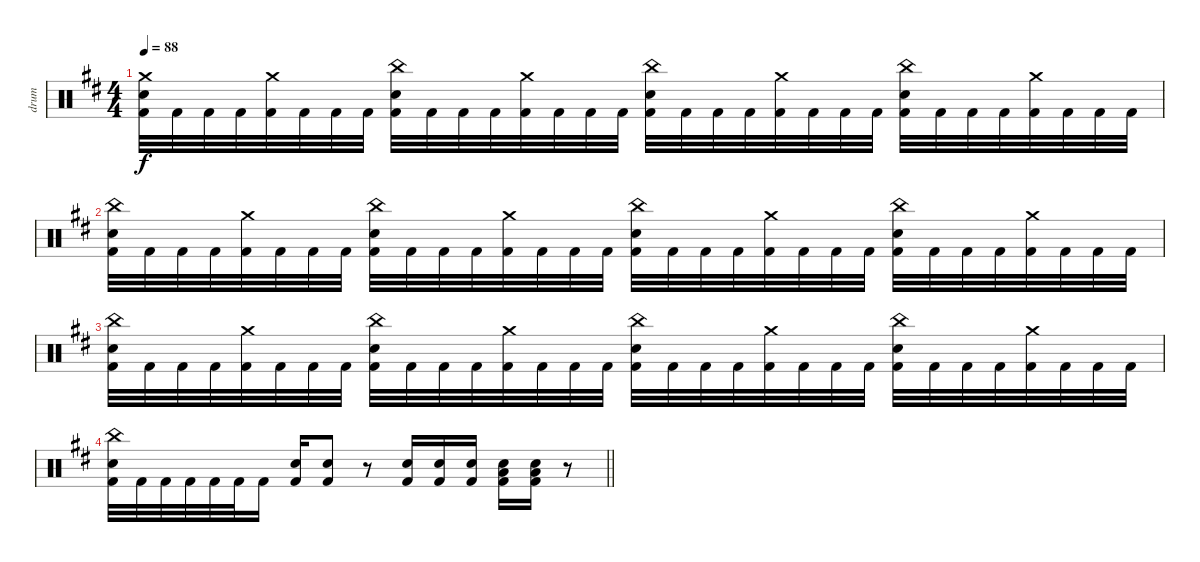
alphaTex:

\track ("drum" "drum") {instrument percussion}
\staff {score}
\articulation defaults
\ts (4 4)
\tempo 88
\clef neutral
\ks bminor
("Crash medium (hit)" "Electric Snare (hit)" "Kick (hit) 2").32{dy f} "Kick (hit) 2".32 "Kick (hit) 2".32 "Kick (hit) 2".32 ("Crash medium (hit)" "Kick (hit) 2").32 "Kick (hit) 2".32 "Kick (hit) 2".32 "Kick (hit) 2".32 ("China (hit)" "Electric Snare (hit)" "Kick (hit) 2").32 "Kick (hit) 2".32 "Kick (hit) 2".32 "Kick (hit) 2".32 ("Crash medium (hit)" "Kick (hit) 2").32 "Kick (hit) 2".32 "Kick (hit) 2".32 "Kick (hit) 2".32 ("China (hit)" "Electric Snare (hit)" "Kick (hit) 2").32 "Kick (hit) 2".32 "Kick (hit) 2".32 "Kick (hit) 2".32 ("Crash medium (hit)" "Kick (hit) 2").32 "Kick (hit) 2".32 "Kick (hit) 2".32 "Kick (hit) 2".32 ("China (hit)" "Electric Snare (hit)" "Kick (hit) 2").32 "Kick (hit) 2".32 "Kick (hit) 2".32 "Kick (hit) 2".32 ("Crash medium (hit)" "Kick (hit) 2").32 "Kick (hit) 2".32 "Kick (hit) 2".32 "Kick (hit) 2".32 |
("China (hit)" "Electric Snare (hit)" "Kick (hit) 2").32 "Kick (hit) 2".32 "Kick (hit) 2".32 "Kick (hit) 2".32 ("Crash medium (hit)" "Kick (hit) 2").32 "Kick (hit) 2".32 "Kick (hit) 2".32 "Kick (hit) 2".32 ("China (hit)" "Electric Snare (hit)" "Kick (hit) 2").32 "Kick (hit) 2".32 "Kick (hit) 2".32 "Kick (hit) 2".32 ("Crash medium (hit)" "Kick (hit) 2").32 "Kick (hit) 2".32 "Kick (hit) 2".32 "Kick (hit) 2".32 ("China (hit)" "Electric Snare (hit)" "Kick (hit) 2").32 "Kick (hit) 2".32 "Kick (hit) 2".32 "Kick (hit) 2".32 ("Crash medium (hit)" "Kick (hit) 2").32 "Kick (hit) 2".32 "Kick (hit) 2".32 "Kick (hit) 2".32 ("China (hit)" "Electric Snare (hit)" "Kick (hit) 2").32 "Kick (hit) 2".32 "Kick (hit) 2".32 "Kick (hit) 2".32 ("Crash medium (hit)" "Kick (hit) 2").32 "Kick (hit) 2".32 "Kick (hit) 2".32 "Kick (hit) 2".32 |
("China (hit)" "Electric Snare (hit)" "Kick (hit) 2").32 "Kick (hit) 2".32 "Kick (hit) 2".32 "Kick (hit) 2".32 ("Crash medium (hit)" "Kick (hit) 2").32 "Kick (hit) 2".32 "Kick (hit) 2".32 "Kick (hit) 2".32 ("China (hit)" "Electric Snare (hit)" "Kick (hit) 2").32 "Kick (hit) 2".32 "Kick (hit) 2".32 "Kick (hit) 2".32 ("Crash medium (hit)" "Kick (hit) 2").32 "Kick (hit) 2".32 "Kick (hit) 2".32 "Kick (hit) 2".32 ("China (hit)" "Electric Snare (hit)" "Kick (hit) 2").32 "Kick (hit) 2".32 "Kick (hit) 2".32 "Kick (hit) 2".32 ("Crash medium (hit)" "Kick (hit) 2").32 "Kick (hit) 2".32 "Kick (hit) 2".32 "Kick (hit) 2".32 ("China (hit)" "Electric Snare (hit)" "Kick (hit) 2").32 "Kick (hit) 2".32 "Kick (hit) 2".32 "Kick (hit) 2".32 ("Crash medium (hit)" "Kick (hit) 2").32 "Kick (hit) 2".32 "Kick (hit) 2".32 "Kick (hit) 2".32 |
\barLineRight lightlight
("China (hit)" "Electric Snare (hit)" "Kick (hit) 2").32 "Kick (hit) 2".32 "Kick (hit) 2".32 "Kick (hit) 2".32 "Kick (hit) 2".32 "Kick (hit) 2".32 "Kick (hit) 2".16 ("Electric Snare (hit)" "Kick (hit) 2").16 ("Electric Snare (hit)" "Kick (hit) 2").8 r.8 ("Electric Snare (hit)" "Kick (hit) 2").16 ("Electric Snare (hit)" "Kick (hit) 2").16 ("Electric Snare (hit)" "Kick (hit) 2").16 ("Low Tom (hit)" "Electric Snare (hit)" "Kick (hit) 2").16 ("Low Tom (hit)" "Electric Snare (hit)" "Kick (hit) 2").16 r.8
